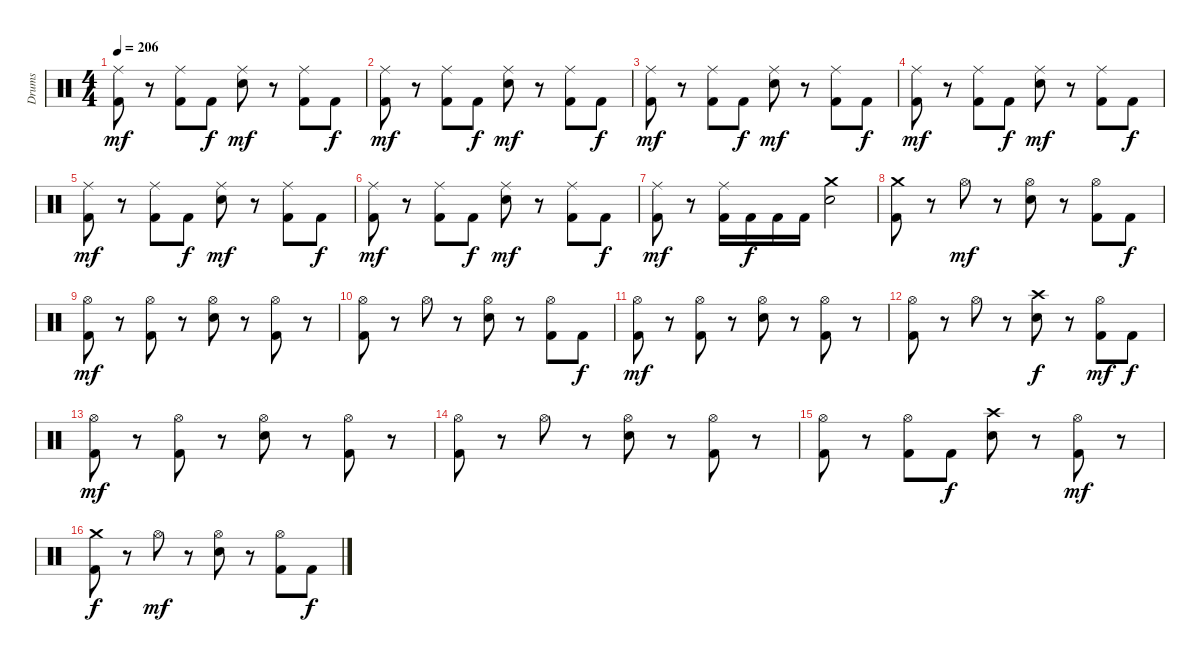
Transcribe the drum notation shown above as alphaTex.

\track ("Drums" "Drums") {instrument percussion}
\staff {score}
\articulation defaults
\ts (4 4)
\tempo 206
\clef neutral
\ks c
("Ride (middle)" "Kick (hit) 2").8{dy mf} r.8 ("Ride (middle)" "Kick (hit) 2").8 "Kick (hit) 2".8{dy f} ("Ride (middle)" "Snare (hit) 2").8{dy mf} r.8 ("Ride (middle)" "Kick (hit) 2").8 "Kick (hit) 2".8{dy f} |
("Ride (middle)" "Kick (hit) 2").8{dy mf} r.8 ("Ride (middle)" "Kick (hit) 2").8 "Kick (hit) 2".8{dy f} ("Ride (middle)" "Snare (hit) 2").8{dy mf} r.8 ("Ride (middle)" "Kick (hit) 2").8 "Kick (hit) 2".8{dy f} |
("Ride (middle)" "Kick (hit) 2").8{dy mf} r.8 ("Ride (middle)" "Kick (hit) 2").8 "Kick (hit) 2".8{dy f} ("Ride (middle)" "Snare (hit) 2").8{dy mf} r.8 ("Ride (middle)" "Kick (hit) 2").8 "Kick (hit) 2".8{dy f} |
("Ride (middle)" "Kick (hit) 2").8{dy mf} r.8 ("Ride (middle)" "Kick (hit) 2").8 "Kick (hit) 2".8{dy f} ("Ride (middle)" "Snare (hit) 2").8{dy mf} r.8 ("Ride (middle)" "Kick (hit) 2").8 "Kick (hit) 2".8{dy f} |
("Ride (middle)" "Kick (hit) 2").8{dy mf} r.8 ("Ride (middle)" "Kick (hit) 2").8 "Kick (hit) 2".8{dy f} ("Ride (middle)" "Snare (hit) 2").8{dy mf} r.8 ("Ride (middle)" "Kick (hit) 2").8 "Kick (hit) 2".8{dy f} |
("Ride (middle)" "Kick (hit) 2").8{dy mf} r.8 ("Ride (middle)" "Kick (hit) 2").8 "Kick (hit) 2".8{dy f} ("Ride (middle)" "Snare (hit) 2").8{dy mf} r.8 ("Ride (middle)" "Kick (hit) 2").8 "Kick (hit) 2".8{dy f} |
("Ride (middle)" "Kick (hit) 2").8{dy mf} r.8 ("Ride (middle)" "Kick (hit) 2").16 "Kick (hit) 2".16{dy f} "Kick (hit) 2".16 "Kick (hit) 2".16 ("Crash medium (hit)" "Snare (hit) 2").2 |
("Crash medium (hit)" "Kick (hit) 2").8 r.8 "Hi-Hat (open)".8{dy mf} r.8 ("Hi-Hat (open)" "Snare (hit) 2").8 r.8 ("Hi-Hat (open)" "Kick (hit) 2").8 "Kick (hit) 2".8{dy f} |
("Hi-Hat (open)" "Kick (hit) 2").8{dy mf} r.8 ("Hi-Hat (open)" "Kick (hit) 2").8 r.8 ("Hi-Hat (open)" "Snare (hit) 2").8 r.8 ("Hi-Hat (open)" "Kick (hit) 2").8 r.8 |
("Hi-Hat (open)" "Kick (hit) 2").8 r.8 "Hi-Hat (open)".8 r.8 ("Hi-Hat (open)" "Snare (hit) 2").8 r.8 ("Hi-Hat (open)" "Kick (hit) 2").8 "Kick (hit) 2".8{dy f} |
("Hi-Hat (open)" "Kick (hit) 2").8{dy mf} r.8 ("Hi-Hat (open)" "Kick (hit) 2").8 r.8 ("Hi-Hat (open)" "Snare (hit) 2").8 r.8 ("Hi-Hat (open)" "Kick (hit) 2").8 r.8 |
("Hi-Hat (open)" "Kick (hit) 2").8 r.8 "Hi-Hat (open)".8 r.8 ("Crash high (hit)" "Snare (hit) 2").8{dy f} r.8 ("Hi-Hat (open)" "Kick (hit) 2").8{dy mf} "Kick (hit) 2".8{dy f} |
("Hi-Hat (open)" "Kick (hit) 2").8{dy mf} r.8 ("Hi-Hat (open)" "Kick (hit) 2").8 r.8 ("Hi-Hat (open)" "Snare (hit) 2").8 r.8 ("Hi-Hat (open)" "Kick (hit) 2").8 r.8 |
("Hi-Hat (open)" "Kick (hit) 2").8 r.8 "Hi-Hat (open)".8 r.8 ("Hi-Hat (open)" "Snare (hit) 2").8 r.8 ("Hi-Hat (open)" "Kick (hit) 2").8 r.8 |
("Hi-Hat (open)" "Kick (hit) 2").8 r.8 ("Hi-Hat (open)" "Kick (hit) 2").8 "Kick (hit) 2".8{dy f} ("Crash high (hit)" "Snare (hit) 2").8 r.8 ("Hi-Hat (open)" "Kick (hit) 2").8{dy mf} r.8 |
("Crash medium (hit)" "Kick (hit) 2").8{dy f} r.8 "Hi-Hat (open)".8{dy mf} r.8 ("Hi-Hat (open)" "Snare (hit) 2").8 r.8 ("Hi-Hat (open)" "Kick (hit) 2").8 "Kick (hit) 2".8{dy f}
